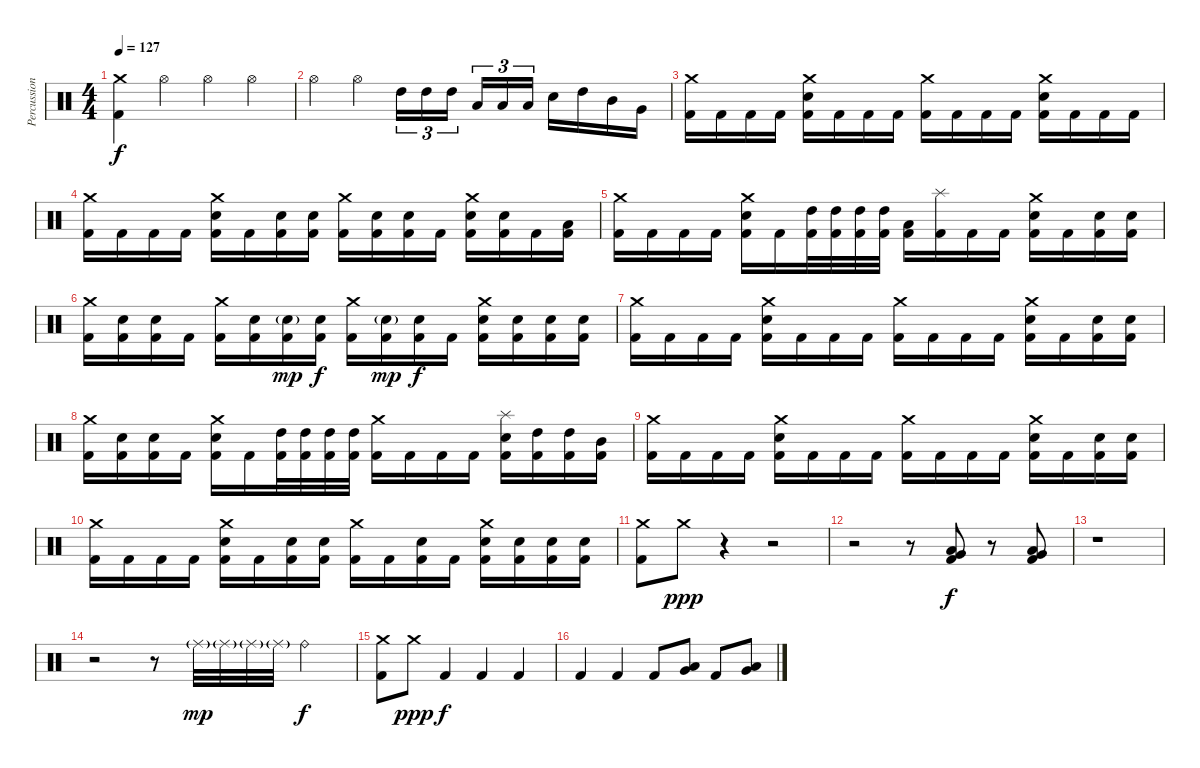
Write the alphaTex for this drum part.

\track ("Percussion" "Percussion") {instrument percussion}
\staff {score}
\articulation defaults
\ts (4 4)
\tempo 127
\clef neutral
\ks c
("Crash medium (hit)" "Kick (hit) 2").4{dy f} "Hi-Hat (open)".4 "Hi-Hat (open)".4 "Hi-Hat (open)".4 |
"Hi-Hat (open)".4 "Hi-Hat (open)".4 "High Tom (hit)".16{tu (3 2)} "High Tom (hit)".16{tu (3 2)} "High Tom (hit)".16{tu (3 2) beam splitsecondary} "Low Tom (hit)".16{tu (3 2)} "Low Tom (hit)".16{tu (3 2)} "Low Tom (hit)".16{tu (3 2)} "Electric Snare (hit)".16 "High Tom (hit)".16 "Mid Tom (hit)".16 "Very Low Tom (hit)".16 |
("Crash medium (hit)" "Kick (hit) 2").16 "Kick (hit) 2".16 "Kick (hit) 2".16 "Kick (hit) 2".16 ("Crash medium (hit)" "Electric Snare (hit)" "Kick (hit) 2").16 "Kick (hit) 2".16 "Kick (hit) 2".16 "Kick (hit) 2".16 ("Crash medium (hit)" "Kick (hit) 2").16 "Kick (hit) 2".16 "Kick (hit) 2".16 "Kick (hit) 2".16 ("Crash medium (hit)" "Electric Snare (hit)" "Kick (hit) 2").16 "Kick (hit) 2".16 "Kick (hit) 2".16 "Kick (hit) 2".16 |
("Crash medium (hit)" "Kick (hit) 2").16 "Kick (hit) 2".16 "Kick (hit) 2".16 "Kick (hit) 2".16 ("Crash medium (hit)" "Electric Snare (hit)" "Kick (hit) 2").16 "Kick (hit) 2".16 ("Electric Snare (hit)" "Kick (hit) 2").16 ("Electric Snare (hit)" "Kick (hit) 2").16 ("Crash medium (hit)" "Kick (hit) 2").16 ("Electric Snare (hit)" "Kick (hit) 2").16 ("Electric Snare (hit)" "Kick (hit) 2").16 "Kick (hit) 2".16 ("Crash medium (hit)" "Electric Snare (hit)" "Kick (hit) 2").16 ("Electric Snare (hit)" "Kick (hit) 2").16 "Kick (hit) 2".16 ("Low Tom (hit)" "Kick (hit) 2").16 |
("Crash medium (hit)" "Kick (hit) 2").16 "Kick (hit) 2".16 "Kick (hit) 2".16 "Kick (hit) 2".16 ("Crash medium (hit)" "Electric Snare (hit)" "Kick (hit) 2").16 "Kick (hit) 2".16 ("High Tom (hit)" "Kick (hit) 2").32 ("High Tom (hit)" "Kick (hit) 2").32 ("High Tom (hit)" "Kick (hit) 2").32 ("High Tom (hit)" "Kick (hit) 2").32 ("Low Tom (hit)" "Kick (hit) 2").16 ("Splash (hit)" "Kick (hit) 2").16 "Kick (hit) 2".16 "Kick (hit) 2".16 ("Crash medium (hit)" "Electric Snare (hit)" "Kick (hit) 2").16 "Kick (hit) 2".16 ("Electric Snare (hit)" "Kick (hit) 2").16 ("Electric Snare (hit)" "Kick (hit) 2").16 |
("Crash medium (hit)" "Kick (hit) 2").16 ("Electric Snare (hit)" "Kick (hit) 2").16 ("Electric Snare (hit)" "Kick (hit) 2").16 "Kick (hit) 2".16 ("Crash medium (hit)" "Kick (hit) 2").16 ("Electric Snare (hit)" "Kick (hit) 2").16 ("Electric Snare (hit)"{g} "Kick (hit) 2").16{dy mp} ("Electric Snare (hit)" "Kick (hit) 2").16{dy f} ("Crash medium (hit)" "Kick (hit) 2").16 ("Electric Snare (hit)"{g} "Kick (hit) 2").16{dy mp} ("Electric Snare (hit)" "Kick (hit) 2").16{dy f} "Kick (hit) 2".16 ("Crash medium (hit)" "Electric Snare (hit)" "Kick (hit) 2").16 ("Electric Snare (hit)" "Kick (hit) 2").16 ("Electric Snare (hit)" "Kick (hit) 2").16 ("Electric Snare (hit)" "Kick (hit) 2").16 |
("Crash medium (hit)" "Kick (hit) 2").16 "Kick (hit) 2".16 "Kick (hit) 2".16 "Kick (hit) 2".16 ("Crash medium (hit)" "Electric Snare (hit)" "Kick (hit) 2").16 "Kick (hit) 2".16 "Kick (hit) 2".16 "Kick (hit) 2".16 ("Crash medium (hit)" "Kick (hit) 2").16 "Kick (hit) 2".16 "Kick (hit) 2".16 "Kick (hit) 2".16 ("Crash medium (hit)" "Electric Snare (hit)" "Kick (hit) 2").16 "Kick (hit) 2".16 ("Electric Snare (hit)" "Kick (hit) 2").16 ("Electric Snare (hit)" "Kick (hit) 2").16 |
("Crash medium (hit)" "Kick (hit) 2").16 ("Electric Snare (hit)" "Kick (hit) 2").16 ("Electric Snare (hit)" "Kick (hit) 2").16 "Kick (hit) 2".16 ("Crash medium (hit)" "Electric Snare (hit)" "Kick (hit) 2").16 "Kick (hit) 2".16 ("High Tom (hit)" "Kick (hit) 2").32 ("High Tom (hit)" "Kick (hit) 2").32 ("High Tom (hit)" "Kick (hit) 2").32 ("High Tom (hit)" "Kick (hit) 2").32 ("Crash medium (hit)" "Kick (hit) 2").16 "Kick (hit) 2".16 "Kick (hit) 2".16 "Kick (hit) 2".16 ("Splash (hit)" "Electric Snare (hit)" "Kick (hit) 2").16 ("High Tom (hit)" "Kick (hit) 2").16 ("High Tom (hit)" "Kick (hit) 2").16 ("Mid Tom (hit)" "Kick (hit) 2").16 |
("Crash medium (hit)" "Kick (hit) 2").16 "Kick (hit) 2".16 "Kick (hit) 2".16 "Kick (hit) 2".16 ("Crash medium (hit)" "Electric Snare (hit)" "Kick (hit) 2").16 "Kick (hit) 2".16 "Kick (hit) 2".16 "Kick (hit) 2".16 ("Crash medium (hit)" "Kick (hit) 2").16 "Kick (hit) 2".16 "Kick (hit) 2".16 "Kick (hit) 2".16 ("Crash medium (hit)" "Electric Snare (hit)" "Kick (hit) 2").16 "Kick (hit) 2".16 ("Electric Snare (hit)" "Kick (hit) 2").16 ("Electric Snare (hit)" "Kick (hit) 2").16 |
("Crash medium (hit)" "Kick (hit) 2").16 "Kick (hit) 2".16 "Kick (hit) 2".16 "Kick (hit) 2".16 ("Crash medium (hit)" "Electric Snare (hit)" "Kick (hit) 2").16 "Kick (hit) 2".16 ("Electric Snare (hit)" "Kick (hit) 2").16 ("Electric Snare (hit)" "Kick (hit) 2").16 ("Crash medium (hit)" "Kick (hit) 2").16 "Kick (hit) 2".16 ("Electric Snare (hit)" "Kick (hit) 2").16 "Kick (hit) 2".16 ("Crash medium (hit)" "Electric Snare (hit)" "Kick (hit) 2").16 ("Electric Snare (hit)" "Kick (hit) 2").16 ("Electric Snare (hit)" "Kick (hit) 2").16 ("Electric Snare (hit)" "Kick (hit) 2").16 |
("Crash medium (hit)" "Kick (hit) 2").8 "Crash medium (hit)".8{dy ppp} r.4 r.2 |
r.2 r.8 ("Low Floor Tom (hit)" "Very Low Tom (hit)" "Kick (hit) 2").8{dy f} r.8 ("Low Floor Tom (hit)" "Very Low Tom (hit)" "Kick (hit) 2").8 |
r.1 |
r.2 r.8 "Ride (middle)"{g}.32{dy mp} "Ride (middle)"{g}.32 "Ride (middle)"{g}.32 "Ride (middle)"{g}.32 "Ride (bell)".4{dy f} |
("Crash medium (hit)" "Kick (hit) 2").8 "Crash medium (hit)".8{dy ppp} "Kick (hit) 2".4{dy f} "Kick (hit) 2".4 "Kick (hit) 2".4 |
"Kick (hit) 2".4 "Kick (hit) 2".4 "Kick (hit) 2".8 ("Low Floor Tom (hit)" "Very Low Tom (hit)").8 "Kick (hit) 2".8 ("Low Floor Tom (hit)" "Very Low Tom (hit)").8
